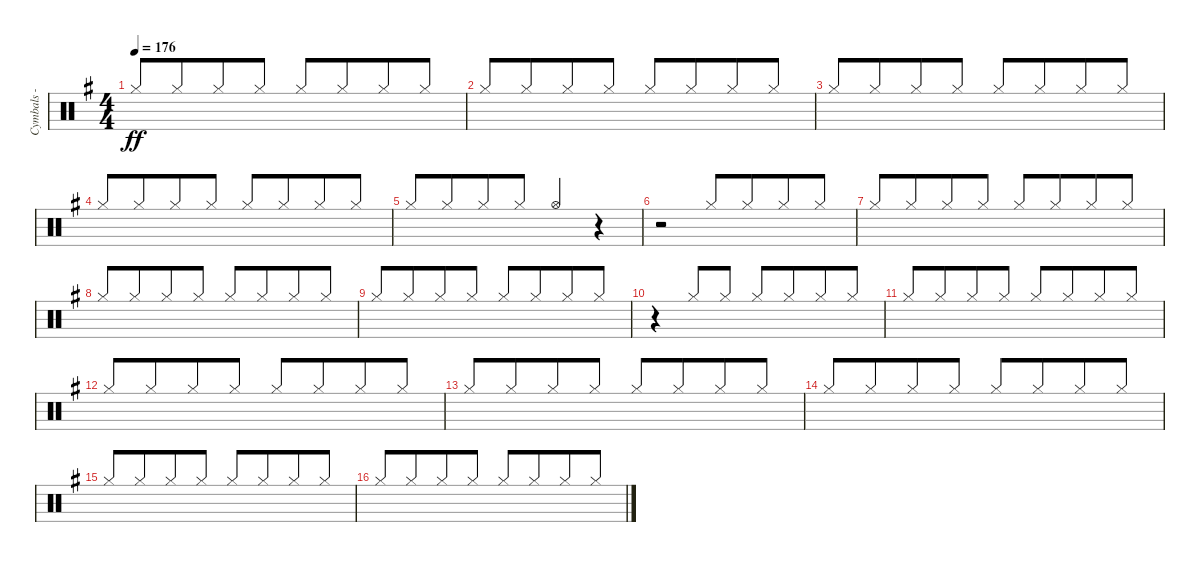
\track ("Cymbals - hi-hat" "Cymbals - ") {instrument percussion}
\staff {score}
\articulation defaults
\ts (4 4)
\tempo 176
\clef neutral
\ks eminor "Hi-Hat (closed)".8{dy ff beam Up} "Hi-Hat (closed)".8{beam Up beam merge} "Hi-Hat (closed)".8{beam Up} "Hi-Hat (closed)".8{beam Up} "Hi-Hat (closed)".8{beam Up} "Hi-Hat (closed)".8{beam Up beam merge} "Hi-Hat (closed)".8{beam Up} "Hi-Hat (closed)".8{beam Up}
|
"Hi-Hat (closed)".8{beam Up} "Hi-Hat (closed)".8{beam Up beam merge} "Hi-Hat (closed)".8{beam Up} "Hi-Hat (closed)".8{beam Up} "Hi-Hat (closed)".8{beam Up} "Hi-Hat (closed)".8{beam Up beam merge} "Hi-Hat (closed)".8{beam Up} "Hi-Hat (closed)".8{beam Up} |
"Hi-Hat (closed)".8{beam Up} "Hi-Hat (closed)".8{beam Up beam merge} "Hi-Hat (closed)".8{beam Up} "Hi-Hat (closed)".8{beam Up} "Hi-Hat (closed)".8{beam Up} "Hi-Hat (closed)".8{beam Up beam merge} "Hi-Hat (closed)".8{beam Up} "Hi-Hat (closed)".8{beam Up} |
"Hi-Hat (closed)".8{beam Up} "Hi-Hat (closed)".8{beam Up beam merge} "Hi-Hat (closed)".8{beam Up} "Hi-Hat (closed)".8{beam Up} "Hi-Hat (closed)".8{beam Up} "Hi-Hat (closed)".8{beam Up beam merge} "Hi-Hat (closed)".8{beam Up} "Hi-Hat (closed)".8{beam Up} |
"Hi-Hat (closed)".8{beam Up} "Hi-Hat (closed)".8{beam Up beam merge} "Hi-Hat (closed)".8{beam Up} "Hi-Hat (closed)".8{beam Up} "Hi-Hat (open)".4{beam Up} r.4 |
r.2 "Hi-Hat (closed)".8{beam Up} "Hi-Hat (closed)".8{beam Up beam merge} "Hi-Hat (closed)".8{beam Up} "Hi-Hat (closed)".8{beam Up} |
"Hi-Hat (closed)".8{beam Up} "Hi-Hat (closed)".8{beam Up beam merge} "Hi-Hat (closed)".8{beam Up} "Hi-Hat (closed)".8{beam Up} "Hi-Hat (closed)".8{beam Up} "Hi-Hat (closed)".8{beam Up beam merge} "Hi-Hat (closed)".8{beam Up} "Hi-Hat (closed)".8{beam Up} |
"Hi-Hat (closed)".8{beam Up} "Hi-Hat (closed)".8{beam Up beam merge} "Hi-Hat (closed)".8{beam Up} "Hi-Hat (closed)".8{beam Up} "Hi-Hat (closed)".8{beam Up} "Hi-Hat (closed)".8{beam Up beam merge} "Hi-Hat (closed)".8{beam Up} "Hi-Hat (closed)".8{beam Up} |
"Hi-Hat (closed)".8{beam Up} "Hi-Hat (closed)".8{beam Up beam merge} "Hi-Hat (closed)".8{beam Up} "Hi-Hat (closed)".8{beam Up} "Hi-Hat (closed)".8{beam Up} "Hi-Hat (closed)".8{beam Up beam merge} "Hi-Hat (closed)".8{beam Up} "Hi-Hat (closed)".8{beam Up} |
r.4{beam Up beam merge} "Hi-Hat (closed)".8{beam Up} "Hi-Hat (closed)".8{beam Up} "Hi-Hat (closed)".8{beam Up} "Hi-Hat (closed)".8{beam Up beam merge} "Hi-Hat (closed)".8{beam Up} "Hi-Hat (closed)".8{beam Up} |
"Hi-Hat (closed)".8{beam Up} "Hi-Hat (closed)".8{beam Up beam merge} "Hi-Hat (closed)".8{beam Up} "Hi-Hat (closed)".8{beam Up} "Hi-Hat (closed)".8{beam Up} "Hi-Hat (closed)".8{beam Up beam merge} "Hi-Hat (closed)".8{beam Up} "Hi-Hat (closed)".8{beam Up} |
"Hi-Hat (closed)".8{beam Up} "Hi-Hat (closed)".8{beam Up beam merge} "Hi-Hat (closed)".8{beam Up} "Hi-Hat (closed)".8{beam Up} "Hi-Hat (closed)".8{beam Up} "Hi-Hat (closed)".8{beam Up beam merge} "Hi-Hat (closed)".8{beam Up} "Hi-Hat (closed)".8{beam Up} |
"Hi-Hat (closed)".8{beam Up} "Hi-Hat (closed)".8{beam Up beam merge} "Hi-Hat (closed)".8{beam Up} "Hi-Hat (closed)".8{beam Up} "Hi-Hat (closed)".8{beam Up} "Hi-Hat (closed)".8{beam Up beam merge} "Hi-Hat (closed)".8{beam Up} "Hi-Hat (closed)".8{beam Up} |
"Hi-Hat (closed)".8{beam Up} "Hi-Hat (closed)".8{beam Up beam merge} "Hi-Hat (closed)".8{beam Up} "Hi-Hat (closed)".8{beam Up} "Hi-Hat (closed)".8{beam Up} "Hi-Hat (closed)".8{beam Up beam merge} "Hi-Hat (closed)".8{beam Up} "Hi-Hat (closed)".8{beam Up} |
"Hi-Hat (closed)".8{beam Up} "Hi-Hat (closed)".8{beam Up beam merge} "Hi-Hat (closed)".8{beam Up} "Hi-Hat (closed)".8{beam Up} "Hi-Hat (closed)".8{beam Up} "Hi-Hat (closed)".8{beam Up beam merge} "Hi-Hat (closed)".8{beam Up} "Hi-Hat (closed)".8{beam Up} |
"Hi-Hat (closed)".8{beam Up} "Hi-Hat (closed)".8{beam Up beam merge} "Hi-Hat (closed)".8{beam Up} "Hi-Hat (closed)".8{beam Up} "Hi-Hat (closed)".8{beam Up} "Hi-Hat (closed)".8{beam Up beam merge} "Hi-Hat (closed)".8{beam Up} "Hi-Hat (closed)".8{beam Up}
